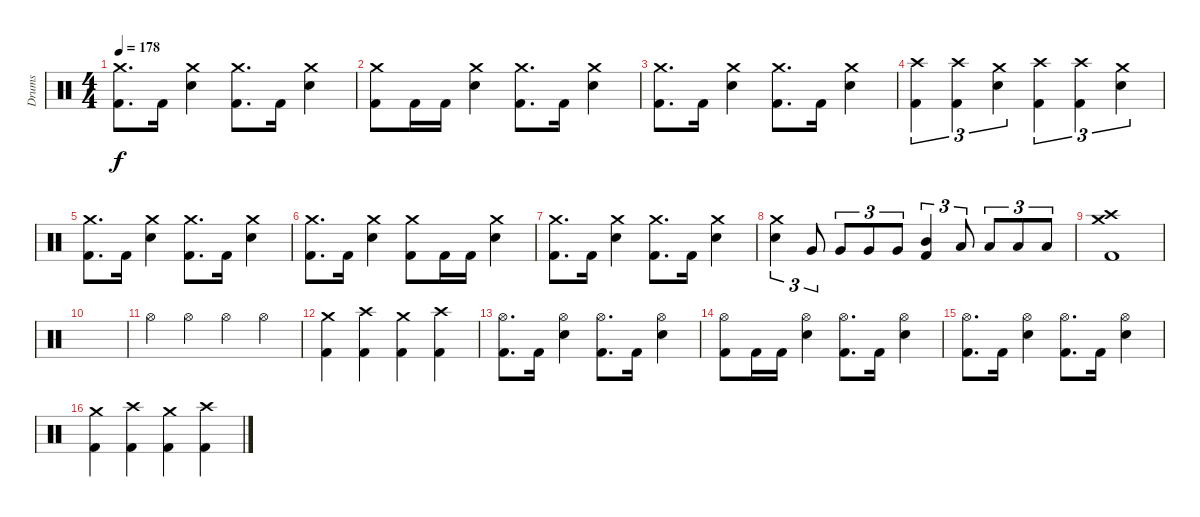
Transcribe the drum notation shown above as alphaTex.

\track ("Drums" "Drums") {instrument percussion}
\staff {score}
\articulation defaults
\ts (4 4)
\tempo 178
\clef neutral
\ks c
("Crash medium (hit)" "Kick (hit) 2").8{d dy f} "Kick (hit) 2".16 ("Crash medium (hit)" "Electric Snare (hit)").4 ("Crash medium (hit)" "Kick (hit) 2").8{d} "Kick (hit) 2".16 ("Crash medium (hit)" "Electric Snare (hit)").4 |
("Crash medium (hit)" "Kick (hit) 2").8 "Kick (hit) 2".16 "Kick (hit) 2".16 ("Crash medium (hit)" "Electric Snare (hit)").4 ("Crash medium (hit)" "Kick (hit) 2").8{d} "Kick (hit) 2".16 ("Crash medium (hit)" "Electric Snare (hit)").4 |
("Crash medium (hit)" "Kick (hit) 2").8{d} "Kick (hit) 2".16 ("Crash medium (hit)" "Electric Snare (hit)").4 ("Crash medium (hit)" "Kick (hit) 2").8{d} "Kick (hit) 2".16 ("Crash medium (hit)" "Electric Snare (hit)").4 |
("Crash high (hit)" "Kick (hit) 2").4{tu (3 2)} ("Crash high (hit)" "Kick (hit) 2").4{tu (3 2)} ("Crash medium (hit)" "Electric Snare (hit)").4{tu (3 2)} ("Crash high (hit)" "Kick (hit) 2").4{tu (3 2)} ("Crash high (hit)" "Kick (hit) 2").4{tu (3 2)} ("Crash medium (hit)" "Electric Snare (hit)").4{tu (3 2)} |
("Crash medium (hit)" "Kick (hit) 2").8{d} "Kick (hit) 2".16 ("Crash medium (hit)" "Electric Snare (hit)").4 ("Crash medium (hit)" "Kick (hit) 2").8{d} "Kick (hit) 2".16 ("Crash medium (hit)" "Electric Snare (hit)").4 |
("Crash medium (hit)" "Kick (hit) 2").8{d} "Kick (hit) 2".16 ("Crash medium (hit)" "Electric Snare (hit)").4 ("Crash medium (hit)" "Kick (hit) 2").8 "Kick (hit) 2".16 "Kick (hit) 2".16 ("Crash medium (hit)" "Electric Snare (hit)").4 |
("Crash medium (hit)" "Kick (hit) 2").8{d} "Kick (hit) 2".16 ("Crash medium (hit)" "Electric Snare (hit)").4 ("Crash medium (hit)" "Kick (hit) 2").8{d} "Kick (hit) 2".16 ("Crash medium (hit)" "Electric Snare (hit)").4 |
("Crash medium (hit)" "Electric Snare (hit)").4{tu (3 2)} "Very Low Tom (hit)".8{tu (3 2)} "Very Low Tom (hit)".8{tu (3 2)} "Very Low Tom (hit)".8{tu (3 2)} "Very Low Tom (hit)".8{tu (3 2)} ("Mid Tom (hit)" "Kick (hit) 2").4{tu (3 2)} "Low Floor Tom (hit)".8{tu (3 2)} "Low Floor Tom (hit)".8{tu (3 2)} "Low Floor Tom (hit)".8{tu (3 2)} "Low Floor Tom (hit)".8{tu (3 2)} |
("Crash medium (hit)" "Crash high (hit)" "Kick (hit) 2").1 |
|
"Hi-Hat (open)".4 "Hi-Hat (open)".4 "Hi-Hat (open)".4 "Hi-Hat (open)".4 |
("Crash medium (hit)" "Kick (hit) 2").4 ("Crash high (hit)" "Kick (hit) 2").4 ("Crash medium (hit)" "Kick (hit) 2").4 ("Crash high (hit)" "Kick (hit) 2").4 |
("Hi-Hat (open)" "Kick (hit) 2").8{d} "Kick (hit) 2".16 ("Hi-Hat (open)" "Electric Snare (hit)").4 ("Hi-Hat (open)" "Kick (hit) 2").8{d} "Kick (hit) 2".16 ("Hi-Hat (open)" "Electric Snare (hit)").4 |
("Hi-Hat (open)" "Kick (hit) 2").8 "Kick (hit) 2".16 "Kick (hit) 2".16 ("Hi-Hat (open)" "Electric Snare (hit)").4 ("Hi-Hat (open)" "Kick (hit) 2").8{d} "Kick (hit) 2".16 ("Hi-Hat (open)" "Electric Snare (hit)").4 |
("Hi-Hat (open)" "Kick (hit) 2").8{d} "Kick (hit) 2".16 ("Hi-Hat (open)" "Electric Snare (hit)").4 ("Hi-Hat (open)" "Kick (hit) 2").8{d} "Kick (hit) 2".16 ("Hi-Hat (open)" "Electric Snare (hit)").4 |
("Crash medium (hit)" "Kick (hit) 2").4 ("Crash high (hit)" "Kick (hit) 2").4 ("Crash medium (hit)" "Kick (hit) 2").4 ("Crash high (hit)" "Kick (hit) 2").4
